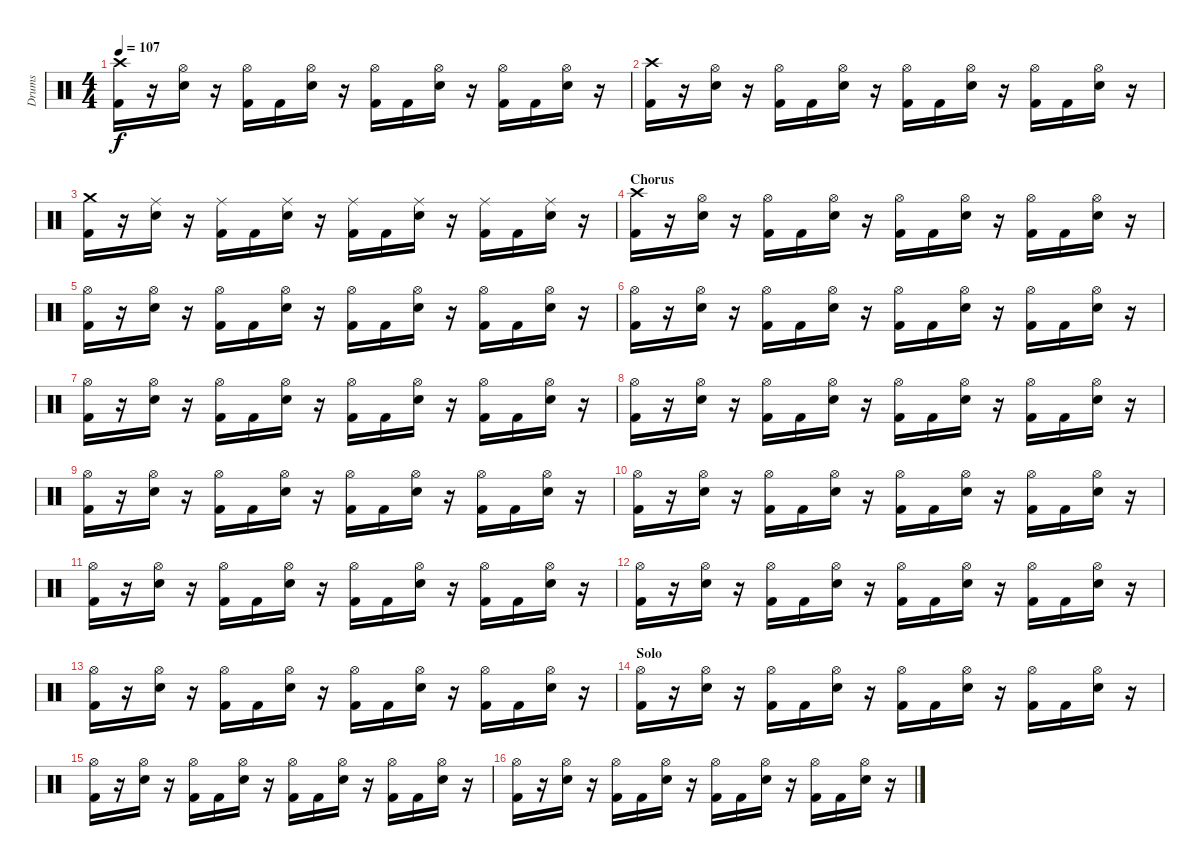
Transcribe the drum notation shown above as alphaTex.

\track ("Drums" "Drums") {instrument percussion}
\staff {score}
\articulation defaults
\ts (4 4)
\tempo 107
\clef neutral
\ks c
("Crash high (hit)" "Kick (hit) 2").16{dy f} r.16 ("Hi-Hat (open)" "Electric Snare (hit)").16 r.16 ("Hi-Hat (open)" "Kick (hit) 2").16 "Kick (hit) 2".16 ("Hi-Hat (open)" "Electric Snare (hit)").16 r.16 ("Hi-Hat (open)" "Kick (hit) 2").16 "Kick (hit) 2".16 ("Hi-Hat (open)" "Electric Snare (hit)").16 r.16 ("Hi-Hat (open)" "Kick (hit) 2").16 "Kick (hit) 2".16 ("Hi-Hat (open)" "Electric Snare (hit)").16 r.16 |
("Crash high (hit)" "Kick (hit) 2").16 r.16 ("Hi-Hat (open)" "Electric Snare (hit)").16 r.16 ("Hi-Hat (open)" "Kick (hit) 2").16 "Kick (hit) 2".16 ("Hi-Hat (open)" "Electric Snare (hit)").16 r.16 ("Hi-Hat (open)" "Kick (hit) 2").16 "Kick (hit) 2".16 ("Hi-Hat (open)" "Electric Snare (hit)").16 r.16 ("Hi-Hat (open)" "Kick (hit) 2").16 "Kick (hit) 2".16 ("Hi-Hat (open)" "Electric Snare (hit)").16 r.16 |
("Crash medium (hit)" "Kick (hit) 2").16 r.16 ("Ride (middle)" "Electric Snare (hit)").16 r.16 ("Ride (middle)" "Kick (hit) 2").16 "Kick (hit) 2".16 ("Ride (middle)" "Electric Snare (hit)").16 r.16 ("Ride (middle)" "Kick (hit) 2").16 "Kick (hit) 2".16 ("Ride (middle)" "Electric Snare (hit)").16 r.16 ("Ride (middle)" "Kick (hit) 2").16 "Kick (hit) 2".16 ("Ride (middle)" "Electric Snare (hit)").16 r.16 |
\section ("" "Chorus")
("Crash high (hit)" "Kick (hit) 2").16 r.16 ("Hi-Hat (open)" "Electric Snare (hit)").16 r.16 ("Hi-Hat (open)" "Kick (hit) 2").16 "Kick (hit) 2".16 ("Hi-Hat (open)" "Electric Snare (hit)").16 r.16 ("Hi-Hat (open)" "Kick (hit) 2").16 "Kick (hit) 2".16 ("Hi-Hat (open)" "Electric Snare (hit)").16 r.16 ("Hi-Hat (open)" "Kick (hit) 2").16 "Kick (hit) 2".16 ("Hi-Hat (open)" "Electric Snare (hit)").16 r.16 |
("Hi-Hat (open)" "Kick (hit) 2").16 r.16 ("Hi-Hat (open)" "Electric Snare (hit)").16 r.16 ("Hi-Hat (open)" "Kick (hit) 2").16 "Kick (hit) 2".16 ("Hi-Hat (open)" "Electric Snare (hit)").16 r.16 ("Hi-Hat (open)" "Kick (hit) 2").16 "Kick (hit) 2".16 ("Hi-Hat (open)" "Electric Snare (hit)").16 r.16 ("Hi-Hat (open)" "Kick (hit) 2").16 "Kick (hit) 2".16 ("Hi-Hat (open)" "Electric Snare (hit)").16 r.16 |
("Hi-Hat (open)" "Kick (hit) 2").16 r.16 ("Hi-Hat (open)" "Electric Snare (hit)").16 r.16 ("Hi-Hat (open)" "Kick (hit) 2").16 "Kick (hit) 2".16 ("Hi-Hat (open)" "Electric Snare (hit)").16 r.16 ("Hi-Hat (open)" "Kick (hit) 2").16 "Kick (hit) 2".16 ("Hi-Hat (open)" "Electric Snare (hit)").16 r.16 ("Hi-Hat (open)" "Kick (hit) 2").16 "Kick (hit) 2".16 ("Hi-Hat (open)" "Electric Snare (hit)").16 r.16 |
("Hi-Hat (open)" "Kick (hit) 2").16 r.16 ("Hi-Hat (open)" "Electric Snare (hit)").16 r.16 ("Hi-Hat (open)" "Kick (hit) 2").16 "Kick (hit) 2".16 ("Hi-Hat (open)" "Electric Snare (hit)").16 r.16 ("Hi-Hat (open)" "Kick (hit) 2").16 "Kick (hit) 2".16 ("Hi-Hat (open)" "Electric Snare (hit)").16 r.16 ("Hi-Hat (open)" "Kick (hit) 2").16 "Kick (hit) 2".16 ("Hi-Hat (open)" "Electric Snare (hit)").16 r.16 |
("Hi-Hat (open)" "Kick (hit) 2").16 r.16 ("Hi-Hat (open)" "Electric Snare (hit)").16 r.16 ("Hi-Hat (open)" "Kick (hit) 2").16 "Kick (hit) 2".16 ("Hi-Hat (open)" "Electric Snare (hit)").16 r.16 ("Hi-Hat (open)" "Kick (hit) 2").16 "Kick (hit) 2".16 ("Hi-Hat (open)" "Electric Snare (hit)").16 r.16 ("Hi-Hat (open)" "Kick (hit) 2").16 "Kick (hit) 2".16 ("Hi-Hat (open)" "Electric Snare (hit)").16 r.16 |
("Hi-Hat (open)" "Kick (hit) 2").16 r.16 ("Hi-Hat (open)" "Electric Snare (hit)").16 r.16 ("Hi-Hat (open)" "Kick (hit) 2").16 "Kick (hit) 2".16 ("Hi-Hat (open)" "Electric Snare (hit)").16 r.16 ("Hi-Hat (open)" "Kick (hit) 2").16 "Kick (hit) 2".16 ("Hi-Hat (open)" "Electric Snare (hit)").16 r.16 ("Hi-Hat (open)" "Kick (hit) 2").16 "Kick (hit) 2".16 ("Hi-Hat (open)" "Electric Snare (hit)").16 r.16 |
("Hi-Hat (open)" "Kick (hit) 2").16 r.16 ("Hi-Hat (open)" "Electric Snare (hit)").16 r.16 ("Hi-Hat (open)" "Kick (hit) 2").16 "Kick (hit) 2".16 ("Hi-Hat (open)" "Electric Snare (hit)").16 r.16 ("Hi-Hat (open)" "Kick (hit) 2").16 "Kick (hit) 2".16 ("Hi-Hat (open)" "Electric Snare (hit)").16 r.16 ("Hi-Hat (open)" "Kick (hit) 2").16 "Kick (hit) 2".16 ("Hi-Hat (open)" "Electric Snare (hit)").16 r.16 |
("Hi-Hat (open)" "Kick (hit) 2").16 r.16 ("Hi-Hat (open)" "Electric Snare (hit)").16 r.16 ("Hi-Hat (open)" "Kick (hit) 2").16 "Kick (hit) 2".16 ("Hi-Hat (open)" "Electric Snare (hit)").16 r.16 ("Hi-Hat (open)" "Kick (hit) 2").16 "Kick (hit) 2".16 ("Hi-Hat (open)" "Electric Snare (hit)").16 r.16 ("Hi-Hat (open)" "Kick (hit) 2").16 "Kick (hit) 2".16 ("Hi-Hat (open)" "Electric Snare (hit)").16 r.16 |
("Hi-Hat (open)" "Kick (hit) 2").16 r.16 ("Hi-Hat (open)" "Electric Snare (hit)").16 r.16 ("Hi-Hat (open)" "Kick (hit) 2").16 "Kick (hit) 2".16 ("Hi-Hat (open)" "Electric Snare (hit)").16 r.16 ("Hi-Hat (open)" "Kick (hit) 2").16 "Kick (hit) 2".16 ("Hi-Hat (open)" "Electric Snare (hit)").16 r.16 ("Hi-Hat (open)" "Kick (hit) 2").16 "Kick (hit) 2".16 ("Hi-Hat (open)" "Electric Snare (hit)").16 r.16 |
("Hi-Hat (open)" "Kick (hit) 2").16 r.16 ("Hi-Hat (open)" "Electric Snare (hit)").16 r.16 ("Hi-Hat (open)" "Kick (hit) 2").16 "Kick (hit) 2".16 ("Hi-Hat (open)" "Electric Snare (hit)").16 r.16 ("Hi-Hat (open)" "Kick (hit) 2").16 "Kick (hit) 2".16 ("Hi-Hat (open)" "Electric Snare (hit)").16 r.16 ("Hi-Hat (open)" "Kick (hit) 2").16 "Kick (hit) 2".16 ("Hi-Hat (open)" "Electric Snare (hit)").16 r.16 |
\section ("" "Solo")
("Hi-Hat (open)" "Kick (hit) 2").16 r.16 ("Hi-Hat (open)" "Electric Snare (hit)").16 r.16 ("Hi-Hat (open)" "Kick (hit) 2").16 "Kick (hit) 2".16 ("Hi-Hat (open)" "Electric Snare (hit)").16 r.16 ("Hi-Hat (open)" "Kick (hit) 2").16 "Kick (hit) 2".16 ("Hi-Hat (open)" "Electric Snare (hit)").16 r.16 ("Hi-Hat (open)" "Kick (hit) 2").16 "Kick (hit) 2".16 ("Hi-Hat (open)" "Electric Snare (hit)").16 r.16 |
("Hi-Hat (open)" "Kick (hit) 2").16 r.16 ("Hi-Hat (open)" "Electric Snare (hit)").16 r.16 ("Hi-Hat (open)" "Kick (hit) 2").16 "Kick (hit) 2".16 ("Hi-Hat (open)" "Electric Snare (hit)").16 r.16 ("Hi-Hat (open)" "Kick (hit) 2").16 "Kick (hit) 2".16 ("Hi-Hat (open)" "Electric Snare (hit)").16 r.16 ("Hi-Hat (open)" "Kick (hit) 2").16 "Kick (hit) 2".16 ("Hi-Hat (open)" "Electric Snare (hit)").16 r.16 |
("Hi-Hat (open)" "Kick (hit) 2").16 r.16 ("Hi-Hat (open)" "Electric Snare (hit)").16 r.16 ("Hi-Hat (open)" "Kick (hit) 2").16 "Kick (hit) 2".16 ("Hi-Hat (open)" "Electric Snare (hit)").16 r.16 ("Hi-Hat (open)" "Kick (hit) 2").16 "Kick (hit) 2".16 ("Hi-Hat (open)" "Electric Snare (hit)").16 r.16 ("Hi-Hat (open)" "Kick (hit) 2").16 "Kick (hit) 2".16 ("Hi-Hat (open)" "Electric Snare (hit)").16 r.16
